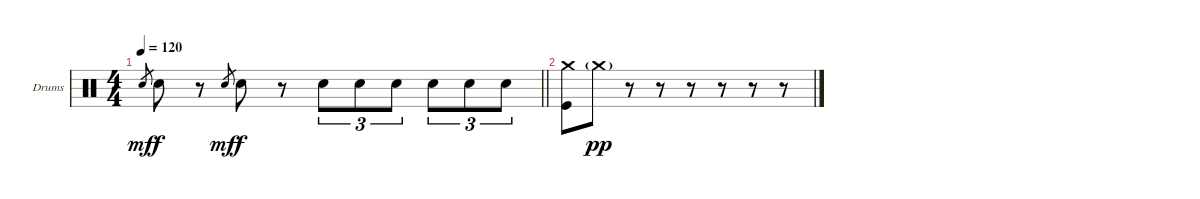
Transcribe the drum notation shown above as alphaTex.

\bracketExtendMode groupsimilarinstruments
\firstSystemTrackNameOrientation horizontal
\otherSystemsTrackNameOrientation horizontal
\track ("Drumkit" "Drums") {instrument percussion}
\staff {score}
\articulation defaults
\ts (4 4)
\tempo 120
\clef neutral
\barLineRight lightlight
\ks c "Snare (hit) 2".8{gr dy mf} "Snare (hit) 2".8{dy f}
r.8 "Snare (hit) 2".8{gr dy mf} "Snare (hit) 2".8{dy f} r.8 "Snare (hit) 2".8{tu (3 2)} "Snare (hit) 2".8{tu (3 2)} "Snare (hit) 2".8{tu (3 2)} "Snare (hit) 2".8{tu (3 2)} "Snare (hit) 2".8{tu (3 2)} "Snare (hit) 2".8{tu (3 2)} |
("Crash medium (hit)" "Kick (hit)").8 "Crash medium (hit)"{g}.8{dy pp} r.8 r.8 r.8 r.8 r.8 r.8
